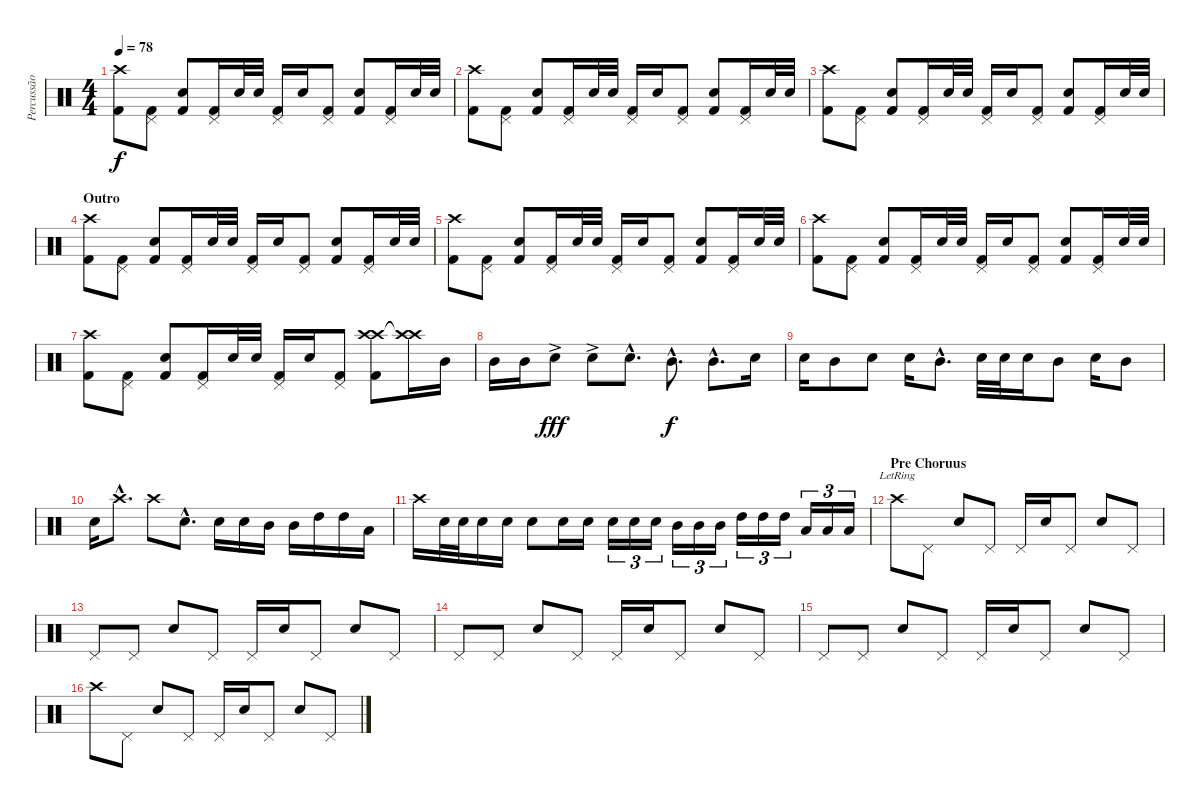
\track ("Percussão" "Percussão") {instrument percussion}
\staff {score}
\articulation defaults
\ts (4 4)
\tempo 78
\clef neutral
\ks c
("Crash high (hit)" "Kick (hit) 2").8{dy f} ("Pedal Hi-Hat (hit)" "Kick (hit) 2").8 ("Electric Snare (hit)" "Kick (hit) 2").8 ("Pedal Hi-Hat (hit)" "Kick (hit) 2").16 "Electric Snare (hit)".32 "Electric Snare (hit)".32 ("Pedal Hi-Hat (hit)" "Kick (hit) 2").16 "Electric Snare (hit)".16 ("Pedal Hi-Hat (hit)" "Kick (hit) 2").8 ("Electric Snare (hit)" "Kick (hit) 2").8 ("Pedal Hi-Hat (hit)" "Kick (hit) 2").16 "Electric Snare (hit)".32 "Electric Snare (hit)".32 |
("Crash high (hit)" "Kick (hit) 2").8 ("Pedal Hi-Hat (hit)" "Kick (hit) 2").8 ("Electric Snare (hit)" "Kick (hit) 2").8 ("Pedal Hi-Hat (hit)" "Kick (hit) 2").16 "Electric Snare (hit)".32 "Electric Snare (hit)".32 ("Pedal Hi-Hat (hit)" "Kick (hit) 2").16 "Electric Snare (hit)".16 ("Pedal Hi-Hat (hit)" "Kick (hit) 2").8 ("Electric Snare (hit)" "Kick (hit) 2").8 ("Pedal Hi-Hat (hit)" "Kick (hit) 2").16 "Electric Snare (hit)".32 "Electric Snare (hit)".32 |
("Crash high (hit)" "Kick (hit) 2").8 ("Pedal Hi-Hat (hit)" "Kick (hit) 2").8 ("Electric Snare (hit)" "Kick (hit) 2").8 ("Pedal Hi-Hat (hit)" "Kick (hit) 2").16 "Electric Snare (hit)".32 "Electric Snare (hit)".32 ("Pedal Hi-Hat (hit)" "Kick (hit) 2").16 "Electric Snare (hit)".16 ("Pedal Hi-Hat (hit)" "Kick (hit) 2").8 ("Electric Snare (hit)" "Kick (hit) 2").8 ("Pedal Hi-Hat (hit)" "Kick (hit) 2").16 "Electric Snare (hit)".32 "Electric Snare (hit)".32 |
\section ("" "Outro")
("Crash high (hit)" "Kick (hit) 2").8 ("Pedal Hi-Hat (hit)" "Kick (hit) 2").8 ("Electric Snare (hit)" "Kick (hit) 2").8 ("Pedal Hi-Hat (hit)" "Kick (hit) 2").16 "Electric Snare (hit)".32 "Electric Snare (hit)".32 ("Pedal Hi-Hat (hit)" "Kick (hit) 2").16 "Electric Snare (hit)".16 ("Pedal Hi-Hat (hit)" "Kick (hit) 2").8 ("Electric Snare (hit)" "Kick (hit) 2").8 ("Pedal Hi-Hat (hit)" "Kick (hit) 2").16 "Electric Snare (hit)".32 "Electric Snare (hit)".32 |
("Crash high (hit)" "Kick (hit) 2").8 ("Pedal Hi-Hat (hit)" "Kick (hit) 2").8 ("Electric Snare (hit)" "Kick (hit) 2").8 ("Pedal Hi-Hat (hit)" "Kick (hit) 2").16 "Electric Snare (hit)".32 "Electric Snare (hit)".32 ("Pedal Hi-Hat (hit)" "Kick (hit) 2").16 "Electric Snare (hit)".16 ("Pedal Hi-Hat (hit)" "Kick (hit) 2").8 ("Electric Snare (hit)" "Kick (hit) 2").8 ("Pedal Hi-Hat (hit)" "Kick (hit) 2").16 "Electric Snare (hit)".32 "Electric Snare (hit)".32 |
("Crash high (hit)" "Kick (hit) 2").8 ("Pedal Hi-Hat (hit)" "Kick (hit) 2").8 ("Electric Snare (hit)" "Kick (hit) 2").8 ("Pedal Hi-Hat (hit)" "Kick (hit) 2").16 "Electric Snare (hit)".32 "Electric Snare (hit)".32 ("Pedal Hi-Hat (hit)" "Kick (hit) 2").16 "Electric Snare (hit)".16 ("Pedal Hi-Hat (hit)" "Kick (hit) 2").8 ("Electric Snare (hit)" "Kick (hit) 2").8 ("Pedal Hi-Hat (hit)" "Kick (hit) 2").16 "Electric Snare (hit)".32 "Electric Snare (hit)".32 |
("Crash high (hit)" "Kick (hit) 2").8 ("Pedal Hi-Hat (hit)" "Kick (hit) 2").8 ("Electric Snare (hit)" "Kick (hit) 2").8 ("Pedal Hi-Hat (hit)" "Kick (hit) 2").16 "Electric Snare (hit)".32 "Electric Snare (hit)".32 ("Pedal Hi-Hat (hit)" "Kick (hit) 2").16 "Electric Snare (hit)".16 ("Pedal Hi-Hat (hit)" "Kick (hit) 2").8 ("Crash high (hit)" "Crash high (hit)" "Kick (hit) 2").8 ("Crash high (hit)"{t} "Crash high (hit)"{t}).16 "Mid Tom (hit)".16 |
"Mid Tom (hit)".16 "Mid Tom (hit)".16 "Electric Snare (hit)"{ac}.8{dy fff} "Electric Snare (hit)"{ac}.8 "Electric Snare (hit)"{hac}.8{d} "Mid Tom (hit)"{hac}.8{d dy f} "Mid Tom (hit)"{hac}.8{d} "Electric Snare (hit)".16 |
"Electric Snare (hit)".16 "Mid Tom (hit)".8 "Electric Snare (hit)".8 "Electric Snare (hit)".16 "Mid Tom (hit)"{hac}.8{d} "Electric Snare (hit)".32 "Electric Snare (hit)".32 "Electric Snare (hit)".16 "Mid Tom (hit)".8 "Electric Snare (hit)".16 "Mid Tom (hit)".8 |
"Electric Snare (hit)".16 "Crash high (hit)"{hac}.8{d} "Crash high (hit)".8 "Electric Snare (hit)"{hac}.8{d} "Electric Snare (hit)".16 "Electric Snare (hit)".16 "Mid Tom (hit)".16 "Mid Tom (hit)".16 "High Tom (hit)".16 "High Tom (hit)".16 "Low Tom (hit)".16 |
"Crash high (hit)".16 "Electric Snare (hit)".32 "Electric Snare (hit)".32 "Electric Snare (hit)".16 "Electric Snare (hit)".16 "Electric Snare (hit)".8 "Electric Snare (hit)".16 "Electric Snare (hit)".16 "Electric Snare (hit)".16{tu (3 2)} "Electric Snare (hit)".16{tu (3 2)} "Electric Snare (hit)".16{tu (3 2)} "Mid Tom (hit)".16{tu (3 2)} "Mid Tom (hit)".16{tu (3 2)} "Mid Tom (hit)".16{tu (3 2)} "High Tom (hit)".16{tu (3 2)} "High Tom (hit)".16{tu (3 2)} "High Tom (hit)".16{tu (3 2)} "Low Tom (hit)".16{tu (3 2)} "Low Tom (hit)".16{tu (3 2)} "Low Tom (hit)".16{tu (3 2)} |
\section ("" "Pre Choruus")
"Crash high (hit)"{lr}.8 "Pedal Hi-Hat (hit)".8 "Electric Snare (hit)".8 "Pedal Hi-Hat (hit)".8 "Pedal Hi-Hat (hit)".16 "Electric Snare (hit)".16 "Pedal Hi-Hat (hit)".8 "Electric Snare (hit)".8 "Pedal Hi-Hat (hit)".8 |
"Pedal Hi-Hat (hit)".8 "Pedal Hi-Hat (hit)".8 "Electric Snare (hit)".8 "Pedal Hi-Hat (hit)".8 "Pedal Hi-Hat (hit)".16 "Electric Snare (hit)".16 "Pedal Hi-Hat (hit)".8 "Electric Snare (hit)".8 "Pedal Hi-Hat (hit)".8 |
"Pedal Hi-Hat (hit)".8 "Pedal Hi-Hat (hit)".8 "Electric Snare (hit)".8 "Pedal Hi-Hat (hit)".8 "Pedal Hi-Hat (hit)".16 "Electric Snare (hit)".16 "Pedal Hi-Hat (hit)".8 "Electric Snare (hit)".8 "Pedal Hi-Hat (hit)".8 |
"Pedal Hi-Hat (hit)".8 "Pedal Hi-Hat (hit)".8 "Electric Snare (hit)".8 "Pedal Hi-Hat (hit)".8 "Pedal Hi-Hat (hit)".16 "Electric Snare (hit)".16 "Pedal Hi-Hat (hit)".8 "Electric Snare (hit)".8 "Pedal Hi-Hat (hit)".8 |
"Crash high (hit)".8 "Pedal Hi-Hat (hit)".8 "Electric Snare (hit)".8 "Pedal Hi-Hat (hit)".8 "Pedal Hi-Hat (hit)".16 "Electric Snare (hit)".16 "Pedal Hi-Hat (hit)".8 "Electric Snare (hit)".8 "Pedal Hi-Hat (hit)".8
